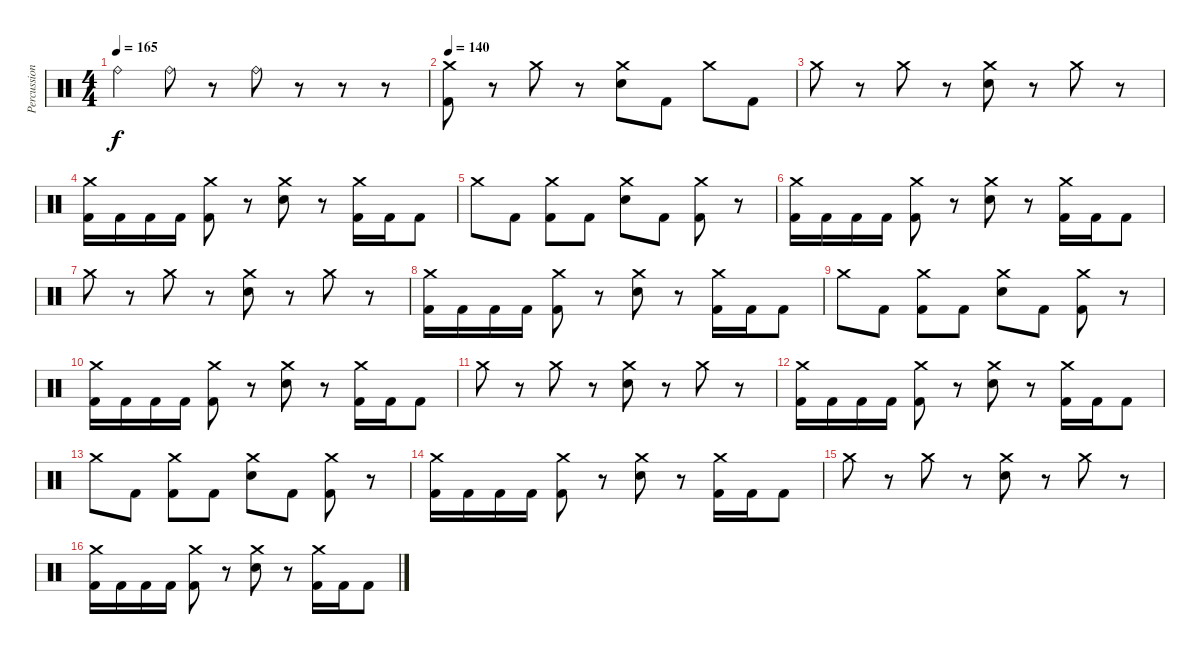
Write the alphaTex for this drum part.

\track ("Percussion" "Percussion") {instrument percussion}
\staff {score}
\articulation defaults
\ts (4 4)
\tempo 165
\clef neutral
\ks c "Ride (bell)".4{dy f} "Ride (bell)".8
r.8 "Ride (bell)".8 r.8 r.8 r.8 |
\tempo 140
("Crash medium (hit)" "Kick (hit) 2").8 r.8 "Crash medium (hit)".8 r.8 ("Crash medium (hit)" "Electric Snare (hit)").8 "Kick (hit) 2".8 "Crash medium (hit)".8 "Kick (hit) 2".8 |
"Crash medium (hit)".8 r.8 "Crash medium (hit)".8 r.8 ("Crash medium (hit)" "Electric Snare (hit)").8 r.8 "Crash medium (hit)".8 r.8 |
("Crash medium (hit)" "Kick (hit) 2").16 "Kick (hit) 2".16 "Kick (hit) 2".16 "Kick (hit) 2".16 ("Crash medium (hit)" "Kick (hit) 2").8 r.8 ("Crash medium (hit)" "Electric Snare (hit)").8 r.8 ("Crash medium (hit)" "Kick (hit) 2").16 "Kick (hit) 2".16 "Kick (hit) 2".8 |
"Crash medium (hit)".8 "Kick (hit) 2".8 ("Crash medium (hit)" "Kick (hit) 2").8 "Kick (hit) 2".8 ("Crash medium (hit)" "Electric Snare (hit)").8 "Kick (hit) 2".8 ("Crash medium (hit)" "Kick (hit) 2").8 r.8 |
("Crash medium (hit)" "Kick (hit) 2").16 "Kick (hit) 2".16 "Kick (hit) 2".16 "Kick (hit) 2".16 ("Crash medium (hit)" "Kick (hit) 2").8 r.8 ("Crash medium (hit)" "Electric Snare (hit)").8 r.8 ("Crash medium (hit)" "Kick (hit) 2").16 "Kick (hit) 2".16 "Kick (hit) 2".8 |
"Crash medium (hit)".8 r.8 "Crash medium (hit)".8 r.8 ("Crash medium (hit)" "Electric Snare (hit)").8 r.8 "Crash medium (hit)".8 r.8 |
("Crash medium (hit)" "Kick (hit) 2").16 "Kick (hit) 2".16 "Kick (hit) 2".16 "Kick (hit) 2".16 ("Crash medium (hit)" "Kick (hit) 2").8 r.8 ("Crash medium (hit)" "Electric Snare (hit)").8 r.8 ("Crash medium (hit)" "Kick (hit) 2").16 "Kick (hit) 2".16 "Kick (hit) 2".8 |
"Crash medium (hit)".8 "Kick (hit) 2".8 ("Crash medium (hit)" "Kick (hit) 2").8 "Kick (hit) 2".8 ("Crash medium (hit)" "Electric Snare (hit)").8 "Kick (hit) 2".8 ("Crash medium (hit)" "Kick (hit) 2").8 r.8 |
("Crash medium (hit)" "Kick (hit) 2").16 "Kick (hit) 2".16 "Kick (hit) 2".16 "Kick (hit) 2".16 ("Crash medium (hit)" "Kick (hit) 2").8 r.8 ("Crash medium (hit)" "Electric Snare (hit)").8 r.8 ("Crash medium (hit)" "Kick (hit) 2").16 "Kick (hit) 2".16 "Kick (hit) 2".8 |
"Crash medium (hit)".8 r.8 "Crash medium (hit)".8 r.8 ("Crash medium (hit)" "Electric Snare (hit)").8 r.8 "Crash medium (hit)".8 r.8 |
("Crash medium (hit)" "Kick (hit) 2").16 "Kick (hit) 2".16 "Kick (hit) 2".16 "Kick (hit) 2".16 ("Crash medium (hit)" "Kick (hit) 2").8 r.8 ("Crash medium (hit)" "Electric Snare (hit)").8 r.8 ("Crash medium (hit)" "Kick (hit) 2").16 "Kick (hit) 2".16 "Kick (hit) 2".8 |
"Crash medium (hit)".8 "Kick (hit) 2".8 ("Crash medium (hit)" "Kick (hit) 2").8 "Kick (hit) 2".8 ("Crash medium (hit)" "Electric Snare (hit)").8 "Kick (hit) 2".8 ("Crash medium (hit)" "Kick (hit) 2").8 r.8 |
("Crash medium (hit)" "Kick (hit) 2").16 "Kick (hit) 2".16 "Kick (hit) 2".16 "Kick (hit) 2".16 ("Crash medium (hit)" "Kick (hit) 2").8 r.8 ("Crash medium (hit)" "Electric Snare (hit)").8 r.8 ("Crash medium (hit)" "Kick (hit) 2").16 "Kick (hit) 2".16 "Kick (hit) 2".8 |
"Crash medium (hit)".8 r.8 "Crash medium (hit)".8 r.8 ("Crash medium (hit)" "Electric Snare (hit)").8 r.8 "Crash medium (hit)".8 r.8 |
("Crash medium (hit)" "Kick (hit) 2").16 "Kick (hit) 2".16 "Kick (hit) 2".16 "Kick (hit) 2".16 ("Crash medium (hit)" "Kick (hit) 2").8 r.8 ("Crash medium (hit)" "Electric Snare (hit)").8 r.8 ("Crash medium (hit)" "Kick (hit) 2").16 "Kick (hit) 2".16 "Kick (hit) 2".8
